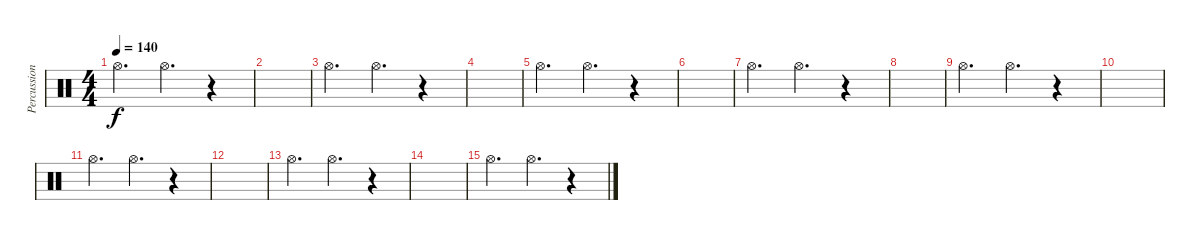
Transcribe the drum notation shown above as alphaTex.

\track ("Percussion" "Percussion") {instrument percussion}
\staff {score}
\articulation defaults
\ts (4 4)
\tempo 140
\clef neutral
\ks c "Hi-Hat (open)".4{d dy f} "Hi-Hat (open)".4{d}
r.4 |
|
"Hi-Hat (open)".4{d} "Hi-Hat (open)".4{d} r.4 |
|
"Hi-Hat (open)".4{d} "Hi-Hat (open)".4{d} r.4 |
|
"Hi-Hat (open)".4{d} "Hi-Hat (open)".4{d} r.4 |
|
"Hi-Hat (open)".4{d} "Hi-Hat (open)".4{d} r.4 |
|
"Hi-Hat (open)".4{d} "Hi-Hat (open)".4{d} r.4 |
|
"Hi-Hat (open)".4{d} "Hi-Hat (open)".4{d} r.4 |
|
"Hi-Hat (open)".4{d} "Hi-Hat (open)".4{d} r.4
